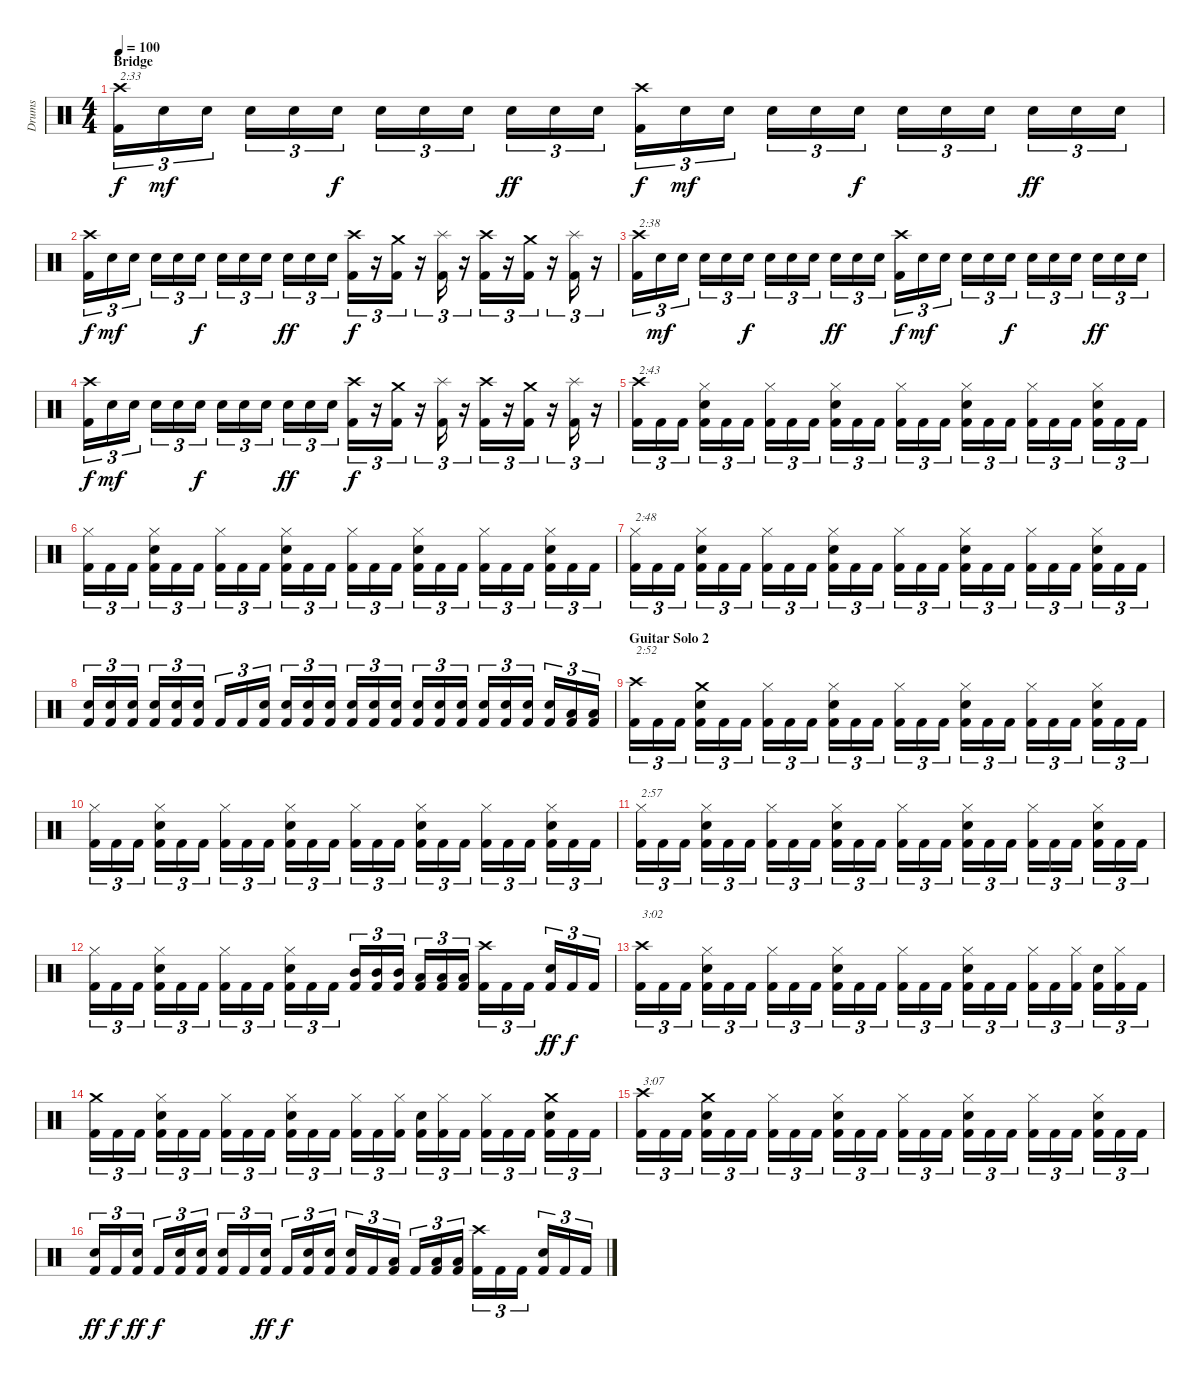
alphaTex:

\track ("Drums" "Drums") {instrument percussion}
\staff {score}
\articulation defaults
\ts (4 4)
\section ("" "Bridge")
\tempo 100
\clef neutral
\ks c
("Crash high (hit)" "Kick (hit) 2").16{tu (3 2) txt "2:33" dy f} "Snare (hit) 2".16{tu (3 2) dy mf} "Snare (hit) 2".16{tu (3 2)} "Snare (hit) 2".16{tu (3 2)} "Snare (hit) 2".16{tu (3 2)} "Snare (hit) 2".16{tu (3 2) dy f} "Snare (hit) 2".16{tu (3 2)} "Snare (hit) 2".16{tu (3 2)} "Snare (hit) 2".16{tu (3 2)} "Snare (hit) 2".16{tu (3 2) dy ff} "Snare (hit) 2".16{tu (3 2)} "Snare (hit) 2".16{tu (3 2)} ("Crash high (hit)" "Kick (hit) 2").16{tu (3 2) dy f} "Snare (hit) 2".16{tu (3 2) dy mf} "Snare (hit) 2".16{tu (3 2)} "Snare (hit) 2".16{tu (3 2)} "Snare (hit) 2".16{tu (3 2)} "Snare (hit) 2".16{tu (3 2) dy f} "Snare (hit) 2".16{tu (3 2)} "Snare (hit) 2".16{tu (3 2)} "Snare (hit) 2".16{tu (3 2)} "Snare (hit) 2".16{tu (3 2) dy ff} "Snare (hit) 2".16{tu (3 2)} "Snare (hit) 2".16{tu (3 2)} |
("Crash high (hit)" "Kick (hit) 2").16{tu (3 2) dy f} "Snare (hit) 2".16{tu (3 2) dy mf} "Snare (hit) 2".16{tu (3 2)} "Snare (hit) 2".16{tu (3 2)} "Snare (hit) 2".16{tu (3 2)} "Snare (hit) 2".16{tu (3 2) dy f} "Snare (hit) 2".16{tu (3 2)} "Snare (hit) 2".16{tu (3 2)} "Snare (hit) 2".16{tu (3 2)} "Snare (hit) 2".16{tu (3 2) dy ff} "Snare (hit) 2".16{tu (3 2)} "Snare (hit) 2".16{tu (3 2)} ("Crash high (hit)" "Kick (hit) 2").16{tu (3 2) dy f} r.16{tu (3 2)} ("Crash medium (hit)" "Kick (hit) 2").16{tu (3 2)} r.16{tu (3 2)} ("Splash (hit)" "Kick (hit) 2").16{tu (3 2)} r.16{tu (3 2)} ("Crash high (hit)" "Kick (hit) 2").16{tu (3 2)} r.16{tu (3 2)} ("Crash medium (hit)" "Kick (hit) 2").16{tu (3 2)} r.16{tu (3 2)} ("Splash (hit)" "Kick (hit) 2").16{tu (3 2)} r.16{tu (3 2)} |
("Crash high (hit)" "Kick (hit) 2").16{tu (3 2) txt "2:38"} "Snare (hit) 2".16{tu (3 2) dy mf} "Snare (hit) 2".16{tu (3 2)} "Snare (hit) 2".16{tu (3 2)} "Snare (hit) 2".16{tu (3 2)} "Snare (hit) 2".16{tu (3 2) dy f} "Snare (hit) 2".16{tu (3 2)} "Snare (hit) 2".16{tu (3 2)} "Snare (hit) 2".16{tu (3 2)} "Snare (hit) 2".16{tu (3 2) dy ff} "Snare (hit) 2".16{tu (3 2)} "Snare (hit) 2".16{tu (3 2)} ("Crash high (hit)" "Kick (hit) 2").16{tu (3 2) dy f} "Snare (hit) 2".16{tu (3 2) dy mf} "Snare (hit) 2".16{tu (3 2)} "Snare (hit) 2".16{tu (3 2)} "Snare (hit) 2".16{tu (3 2)} "Snare (hit) 2".16{tu (3 2) dy f} "Snare (hit) 2".16{tu (3 2)} "Snare (hit) 2".16{tu (3 2)} "Snare (hit) 2".16{tu (3 2)} "Snare (hit) 2".16{tu (3 2) dy ff} "Snare (hit) 2".16{tu (3 2)} "Snare (hit) 2".16{tu (3 2)} |
("Crash high (hit)" "Kick (hit) 2").16{tu (3 2) dy f} "Snare (hit) 2".16{tu (3 2) dy mf} "Snare (hit) 2".16{tu (3 2)} "Snare (hit) 2".16{tu (3 2)} "Snare (hit) 2".16{tu (3 2)} "Snare (hit) 2".16{tu (3 2) dy f} "Snare (hit) 2".16{tu (3 2)} "Snare (hit) 2".16{tu (3 2)} "Snare (hit) 2".16{tu (3 2)} "Snare (hit) 2".16{tu (3 2) dy ff} "Snare (hit) 2".16{tu (3 2)} "Snare (hit) 2".16{tu (3 2)} ("Crash high (hit)" "Kick (hit) 2").16{tu (3 2) dy f} r.16{tu (3 2)} ("Crash medium (hit)" "Kick (hit) 2").16{tu (3 2)} r.16{tu (3 2)} ("Splash (hit)" "Kick (hit) 2").16{tu (3 2)} r.16{tu (3 2)} ("Crash high (hit)" "Kick (hit) 2").16{tu (3 2)} r.16{tu (3 2)} ("Crash medium (hit)" "Kick (hit) 2").16{tu (3 2)} r.16{tu (3 2)} ("Splash (hit)" "Kick (hit) 2").16{tu (3 2)} r.16{tu (3 2)} |
("Crash high (hit)" "Kick (hit) 2").16{tu (3 2) txt "2:43"} "Kick (hit) 2".16{tu (3 2)} "Kick (hit) 2".16{tu (3 2)} ("Hi-Hat (closed)" "Snare (hit) 2" "Kick (hit) 2").16{tu (3 2)} "Kick (hit) 2".16{tu (3 2)} "Kick (hit) 2".16{tu (3 2)} ("Hi-Hat (closed)" "Kick (hit) 2").16{tu (3 2)} "Kick (hit) 2".16{tu (3 2)} "Kick (hit) 2".16{tu (3 2)} ("Hi-Hat (closed)" "Snare (hit) 2" "Kick (hit) 2").16{tu (3 2)} "Kick (hit) 2".16{tu (3 2)} "Kick (hit) 2".16{tu (3 2)} ("Hi-Hat (closed)" "Kick (hit) 2").16{tu (3 2)} "Kick (hit) 2".16{tu (3 2)} "Kick (hit) 2".16{tu (3 2)} ("Hi-Hat (closed)" "Snare (hit) 2" "Kick (hit) 2").16{tu (3 2)} "Kick (hit) 2".16{tu (3 2)} "Kick (hit) 2".16{tu (3 2)} ("Hi-Hat (closed)" "Kick (hit) 2").16{tu (3 2)} "Kick (hit) 2".16{tu (3 2)} "Kick (hit) 2".16{tu (3 2)} ("Hi-Hat (closed)" "Snare (hit) 2" "Kick (hit) 2").16{tu (3 2)} "Kick (hit) 2".16{tu (3 2)} "Kick (hit) 2".16{tu (3 2)} |
("Hi-Hat (closed)" "Kick (hit) 2").16{tu (3 2)} "Kick (hit) 2".16{tu (3 2)} "Kick (hit) 2".16{tu (3 2)} ("Hi-Hat (closed)" "Snare (hit) 2" "Kick (hit) 2").16{tu (3 2)} "Kick (hit) 2".16{tu (3 2)} "Kick (hit) 2".16{tu (3 2)} ("Hi-Hat (closed)" "Kick (hit) 2").16{tu (3 2)} "Kick (hit) 2".16{tu (3 2)} "Kick (hit) 2".16{tu (3 2)} ("Hi-Hat (closed)" "Snare (hit) 2" "Kick (hit) 2").16{tu (3 2)} "Kick (hit) 2".16{tu (3 2)} "Kick (hit) 2".16{tu (3 2)} ("Hi-Hat (closed)" "Kick (hit) 2").16{tu (3 2)} "Kick (hit) 2".16{tu (3 2)} "Kick (hit) 2".16{tu (3 2)} ("Hi-Hat (closed)" "Snare (hit) 2" "Kick (hit) 2").16{tu (3 2)} "Kick (hit) 2".16{tu (3 2)} "Kick (hit) 2".16{tu (3 2)} ("Hi-Hat (closed)" "Kick (hit) 2").16{tu (3 2)} "Kick (hit) 2".16{tu (3 2)} "Kick (hit) 2".16{tu (3 2)} ("Hi-Hat (closed)" "Snare (hit) 2" "Kick (hit) 2").16{tu (3 2)} "Kick (hit) 2".16{tu (3 2)} "Kick (hit) 2".16{tu (3 2)} |
("Hi-Hat (closed)" "Kick (hit) 2").16{tu (3 2) txt "2:48"} "Kick (hit) 2".16{tu (3 2)} "Kick (hit) 2".16{tu (3 2)} ("Hi-Hat (closed)" "Snare (hit) 2" "Kick (hit) 2").16{tu (3 2)} "Kick (hit) 2".16{tu (3 2)} "Kick (hit) 2".16{tu (3 2)} ("Hi-Hat (closed)" "Kick (hit) 2").16{tu (3 2)} "Kick (hit) 2".16{tu (3 2)} "Kick (hit) 2".16{tu (3 2)} ("Hi-Hat (closed)" "Snare (hit) 2" "Kick (hit) 2").16{tu (3 2)} "Kick (hit) 2".16{tu (3 2)} "Kick (hit) 2".16{tu (3 2)} ("Hi-Hat (closed)" "Kick (hit) 2").16{tu (3 2)} "Kick (hit) 2".16{tu (3 2)} "Kick (hit) 2".16{tu (3 2)} ("Hi-Hat (closed)" "Snare (hit) 2" "Kick (hit) 2").16{tu (3 2)} "Kick (hit) 2".16{tu (3 2)} "Kick (hit) 2".16{tu (3 2)} ("Hi-Hat (closed)" "Kick (hit) 2").16{tu (3 2)} "Kick (hit) 2".16{tu (3 2)} "Kick (hit) 2".16{tu (3 2)} ("Hi-Hat (closed)" "Snare (hit) 2" "Kick (hit) 2").16{tu (3 2)} "Kick (hit) 2".16{tu (3 2)} "Kick (hit) 2".16{tu (3 2)} |
("Snare (hit) 2" "Kick (hit) 2").16{tu (3 2)} ("Snare (hit) 2" "Kick (hit) 2").16{tu (3 2)} ("Snare (hit) 2" "Kick (hit) 2").16{tu (3 2)} ("Snare (hit) 2" "Kick (hit) 2").16{tu (3 2)} ("Snare (hit) 2" "Kick (hit) 2").16{tu (3 2)} ("Snare (hit) 2" "Kick (hit) 2").16{tu (3 2)} "Kick (hit) 2".16{tu (3 2)} "Kick (hit) 2".16{tu (3 2)} ("Snare (hit) 2" "Kick (hit) 2").16{tu (3 2)} ("Snare (hit) 2" "Kick (hit) 2").16{tu (3 2)} ("Snare (hit) 2" "Kick (hit) 2").16{tu (3 2)} ("Snare (hit) 2" "Kick (hit) 2").16{tu (3 2)} ("Snare (hit) 2" "Kick (hit) 2").16{tu (3 2)} ("Snare (hit) 2" "Kick (hit) 2").16{tu (3 2)} ("Snare (hit) 2" "Kick (hit) 2").16{tu (3 2)} ("Snare (hit) 2" "Kick (hit) 2").16{tu (3 2)} ("Snare (hit) 2" "Kick (hit) 2").16{tu (3 2)} ("Snare (hit) 2" "Kick (hit) 2").16{tu (3 2)} ("Snare (hit) 2" "Kick (hit) 2").16{tu (3 2)} ("Snare (hit) 2" "Kick (hit) 2").16{tu (3 2)} ("Snare (hit) 2" "Kick (hit) 2").16{tu (3 2)} ("Snare (hit) 2" "Kick (hit) 2").16{tu (3 2)} ("Low Tom (hit)" "Kick (hit) 2").16{tu (3 2)} ("Low Tom (hit)" "Kick (hit) 2").16{tu (3 2)} |
\section ("" "Guitar Solo 2")
("Crash high (hit)" "Kick (hit) 2").16{tu (3 2) txt "2:52"} "Kick (hit) 2".16{tu (3 2)} "Kick (hit) 2".16{tu (3 2)} ("Crash medium (hit)" "Snare (hit) 2" "Kick (hit) 2").16{tu (3 2)} "Kick (hit) 2".16{tu (3 2)} "Kick (hit) 2".16{tu (3 2)} ("Hi-Hat (closed)" "Kick (hit) 2").16{tu (3 2)} "Kick (hit) 2".16{tu (3 2)} "Kick (hit) 2".16{tu (3 2)} ("Hi-Hat (closed)" "Snare (hit) 2" "Kick (hit) 2").16{tu (3 2)} "Kick (hit) 2".16{tu (3 2)} "Kick (hit) 2".16{tu (3 2)} ("Hi-Hat (closed)" "Kick (hit) 2").16{tu (3 2)} "Kick (hit) 2".16{tu (3 2)} "Kick (hit) 2".16{tu (3 2)} ("Hi-Hat (closed)" "Snare (hit) 2" "Kick (hit) 2").16{tu (3 2)} "Kick (hit) 2".16{tu (3 2)} "Kick (hit) 2".16{tu (3 2)} ("Hi-Hat (closed)" "Kick (hit) 2").16{tu (3 2)} "Kick (hit) 2".16{tu (3 2)} "Kick (hit) 2".16{tu (3 2)} ("Hi-Hat (closed)" "Snare (hit) 2" "Kick (hit) 2").16{tu (3 2)} "Kick (hit) 2".16{tu (3 2)} "Kick (hit) 2".16{tu (3 2)} |
("Hi-Hat (closed)" "Kick (hit) 2").16{tu (3 2)} "Kick (hit) 2".16{tu (3 2)} "Kick (hit) 2".16{tu (3 2)} ("Hi-Hat (closed)" "Snare (hit) 2" "Kick (hit) 2").16{tu (3 2)} "Kick (hit) 2".16{tu (3 2)} "Kick (hit) 2".16{tu (3 2)} ("Hi-Hat (closed)" "Kick (hit) 2").16{tu (3 2)} "Kick (hit) 2".16{tu (3 2)} "Kick (hit) 2".16{tu (3 2)} ("Hi-Hat (closed)" "Snare (hit) 2" "Kick (hit) 2").16{tu (3 2)} "Kick (hit) 2".16{tu (3 2)} "Kick (hit) 2".16{tu (3 2)} ("Hi-Hat (closed)" "Kick (hit) 2").16{tu (3 2)} "Kick (hit) 2".16{tu (3 2)} "Kick (hit) 2".16{tu (3 2)} ("Hi-Hat (closed)" "Snare (hit) 2" "Kick (hit) 2").16{tu (3 2)} "Kick (hit) 2".16{tu (3 2)} "Kick (hit) 2".16{tu (3 2)} ("Hi-Hat (closed)" "Kick (hit) 2").16{tu (3 2)} "Kick (hit) 2".16{tu (3 2)} "Kick (hit) 2".16{tu (3 2)} ("Hi-Hat (closed)" "Snare (hit) 2" "Kick (hit) 2").16{tu (3 2)} "Kick (hit) 2".16{tu (3 2)} "Kick (hit) 2".16{tu (3 2)} |
("Hi-Hat (closed)" "Kick (hit) 2").16{tu (3 2) txt "2:57"} "Kick (hit) 2".16{tu (3 2)} "Kick (hit) 2".16{tu (3 2)} ("Hi-Hat (closed)" "Snare (hit) 2" "Kick (hit) 2").16{tu (3 2)} "Kick (hit) 2".16{tu (3 2)} "Kick (hit) 2".16{tu (3 2)} ("Hi-Hat (closed)" "Kick (hit) 2").16{tu (3 2)} "Kick (hit) 2".16{tu (3 2)} "Kick (hit) 2".16{tu (3 2)} ("Hi-Hat (closed)" "Snare (hit) 2" "Kick (hit) 2").16{tu (3 2)} "Kick (hit) 2".16{tu (3 2)} "Kick (hit) 2".16{tu (3 2)} ("Hi-Hat (closed)" "Kick (hit) 2").16{tu (3 2)} "Kick (hit) 2".16{tu (3 2)} "Kick (hit) 2".16{tu (3 2)} ("Hi-Hat (closed)" "Snare (hit) 2" "Kick (hit) 2").16{tu (3 2)} "Kick (hit) 2".16{tu (3 2)} "Kick (hit) 2".16{tu (3 2)} ("Hi-Hat (closed)" "Kick (hit) 2").16{tu (3 2)} "Kick (hit) 2".16{tu (3 2)} "Kick (hit) 2".16{tu (3 2)} ("Hi-Hat (closed)" "Snare (hit) 2" "Kick (hit) 2").16{tu (3 2)} "Kick (hit) 2".16{tu (3 2)} "Kick (hit) 2".16{tu (3 2)} |
("Hi-Hat (closed)" "Kick (hit) 2").16{tu (3 2)} "Kick (hit) 2".16{tu (3 2)} "Kick (hit) 2".16{tu (3 2)} ("Hi-Hat (closed)" "Snare (hit) 2" "Kick (hit) 2").16{tu (3 2)} "Kick (hit) 2".16{tu (3 2)} "Kick (hit) 2".16{tu (3 2)} ("Hi-Hat (closed)" "Kick (hit) 2").16{tu (3 2)} "Kick (hit) 2".16{tu (3 2)} "Kick (hit) 2".16{tu (3 2)} ("Hi-Hat (closed)" "Snare (hit) 2" "Kick (hit) 2").16{tu (3 2)} "Kick (hit) 2".16{tu (3 2)} "Kick (hit) 2".16{tu (3 2)} ("Mid Tom (hit)" "Kick (hit) 2").16{tu (3 2)} ("Mid Tom (hit)" "Kick (hit) 2").16{tu (3 2)} ("Mid Tom (hit)" "Kick (hit) 2").16{tu (3 2)} ("Low Tom (hit)" "Kick (hit) 2").16{tu (3 2)} ("Low Tom (hit)" "Kick (hit) 2").16{tu (3 2)} ("Low Tom (hit)" "Kick (hit) 2").16{tu (3 2)} ("Crash high (hit)" "Kick (hit) 2").16{tu (3 2)} "Kick (hit) 2".16{tu (3 2)} "Kick (hit) 2".16{tu (3 2)} ("Snare (hit) 2" "Kick (hit) 2").16{tu (3 2) dy ff} "Kick (hit) 2".16{tu (3 2) dy f} "Kick (hit) 2".16{tu (3 2)} |
("Crash high (hit)" "Kick (hit) 2").16{tu (3 2) txt "3:02"} "Kick (hit) 2".16{tu (3 2)} "Kick (hit) 2".16{tu (3 2)} ("Hi-Hat (closed)" "Snare (hit) 2" "Kick (hit) 2").16{tu (3 2)} "Kick (hit) 2".16{tu (3 2)} "Kick (hit) 2".16{tu (3 2)} ("Hi-Hat (closed)" "Kick (hit) 2").16{tu (3 2)} "Kick (hit) 2".16{tu (3 2)} "Kick (hit) 2".16{tu (3 2)} ("Hi-Hat (closed)" "Snare (hit) 2" "Kick (hit) 2").16{tu (3 2)} "Kick (hit) 2".16{tu (3 2)} "Kick (hit) 2".16{tu (3 2)} ("Hi-Hat (closed)" "Kick (hit) 2").16{tu (3 2)} "Kick (hit) 2".16{tu (3 2)} "Kick (hit) 2".16{tu (3 2)} ("Hi-Hat (closed)" "Snare (hit) 2" "Kick (hit) 2").16{tu (3 2)} "Kick (hit) 2".16{tu (3 2)} "Kick (hit) 2".16{tu (3 2)} ("Hi-Hat (closed)" "Kick (hit) 2").16{tu (3 2)} "Kick (hit) 2".16{tu (3 2)} ("Hi-Hat (closed)" "Kick (hit) 2").16{tu (3 2)} ("Snare (hit) 2" "Kick (hit) 2").16{tu (3 2)} ("Hi-Hat (closed)" "Kick (hit) 2").16{tu (3 2)} "Kick (hit) 2".16{tu (3 2)} |
("Crash medium (hit)" "Kick (hit) 2").16{tu (3 2)} "Kick (hit) 2".16{tu (3 2)} "Kick (hit) 2".16{tu (3 2)} ("Hi-Hat (closed)" "Snare (hit) 2" "Kick (hit) 2").16{tu (3 2)} "Kick (hit) 2".16{tu (3 2)} "Kick (hit) 2".16{tu (3 2)} ("Hi-Hat (closed)" "Kick (hit) 2").16{tu (3 2)} "Kick (hit) 2".16{tu (3 2)} "Kick (hit) 2".16{tu (3 2)} ("Hi-Hat (closed)" "Snare (hit) 2" "Kick (hit) 2").16{tu (3 2)} "Kick (hit) 2".16{tu (3 2)} "Kick (hit) 2".16{tu (3 2)} ("Hi-Hat (closed)" "Kick (hit) 2").16{tu (3 2)} "Kick (hit) 2".16{tu (3 2)} ("Hi-Hat (closed)" "Kick (hit) 2").16{tu (3 2)} ("Snare (hit) 2" "Kick (hit) 2").16{tu (3 2)} ("Hi-Hat (closed)" "Kick (hit) 2").16{tu (3 2)} "Kick (hit) 2".16{tu (3 2)} ("Hi-Hat (closed)" "Kick (hit) 2").16{tu (3 2)} "Kick (hit) 2".16{tu (3 2)} "Kick (hit) 2".16{tu (3 2)} ("Crash medium (hit)" "Snare (hit) 2" "Kick (hit) 2").16{tu (3 2)} "Kick (hit) 2".16{tu (3 2)} "Kick (hit) 2".16{tu (3 2)} |
("Crash high (hit)" "Kick (hit) 2").16{tu (3 2) txt "3:07"} "Kick (hit) 2".16{tu (3 2)} "Kick (hit) 2".16{tu (3 2)} ("Crash medium (hit)" "Snare (hit) 2" "Kick (hit) 2").16{tu (3 2)} "Kick (hit) 2".16{tu (3 2)} "Kick (hit) 2".16{tu (3 2)} ("Hi-Hat (closed)" "Kick (hit) 2").16{tu (3 2)} "Kick (hit) 2".16{tu (3 2)} "Kick (hit) 2".16{tu (3 2)} ("Hi-Hat (closed)" "Snare (hit) 2" "Kick (hit) 2").16{tu (3 2)} "Kick (hit) 2".16{tu (3 2)} "Kick (hit) 2".16{tu (3 2)} ("Hi-Hat (closed)" "Kick (hit) 2").16{tu (3 2)} "Kick (hit) 2".16{tu (3 2)} "Kick (hit) 2".16{tu (3 2)} ("Hi-Hat (closed)" "Snare (hit) 2" "Kick (hit) 2").16{tu (3 2)} "Kick (hit) 2".16{tu (3 2)} "Kick (hit) 2".16{tu (3 2)} ("Hi-Hat (closed)" "Kick (hit) 2").16{tu (3 2)} "Kick (hit) 2".16{tu (3 2)} "Kick (hit) 2".16{tu (3 2)} ("Hi-Hat (closed)" "Snare (hit) 2" "Kick (hit) 2").16{tu (3 2)} "Kick (hit) 2".16{tu (3 2)} "Kick (hit) 2".16{tu (3 2)} |
("Snare (hit) 2" "Kick (hit) 2").16{tu (3 2) dy ff} "Kick (hit) 2".16{tu (3 2) dy f} ("Snare (hit) 2" "Kick (hit) 2").16{tu (3 2) dy ff} "Kick (hit) 2".16{tu (3 2) dy f} ("Snare (hit) 2" "Kick (hit) 2").16{tu (3 2)} ("Snare (hit) 2" "Kick (hit) 2").16{tu (3 2)} ("Snare (hit) 2" "Kick (hit) 2").16{tu (3 2)} "Kick (hit) 2".16{tu (3 2)} ("Snare (hit) 2" "Kick (hit) 2").16{tu (3 2) dy ff} "Kick (hit) 2".16{tu (3 2) dy f} ("Snare (hit) 2" "Kick (hit) 2").16{tu (3 2)} ("Snare (hit) 2" "Kick (hit) 2").16{tu (3 2)} ("Snare (hit) 2" "Kick (hit) 2").16{tu (3 2)} "Kick (hit) 2".16{tu (3 2)} ("Low Tom (hit)" "Kick (hit) 2").16{tu (3 2)} "Kick (hit) 2".16{tu (3 2)} ("Low Tom (hit)" "Kick (hit) 2").16{tu (3 2)} ("Low Tom (hit)" "Kick (hit) 2").16{tu (3 2)} ("Crash high (hit)" "Kick (hit) 2").16{tu (3 2)} "Kick (hit) 2".16{tu (3 2)} "Kick (hit) 2".16{tu (3 2)} ("Snare (hit) 2" "Kick (hit) 2").16{tu (3 2)} "Kick (hit) 2".16{tu (3 2)} "Kick (hit) 2".16{tu (3 2)}
